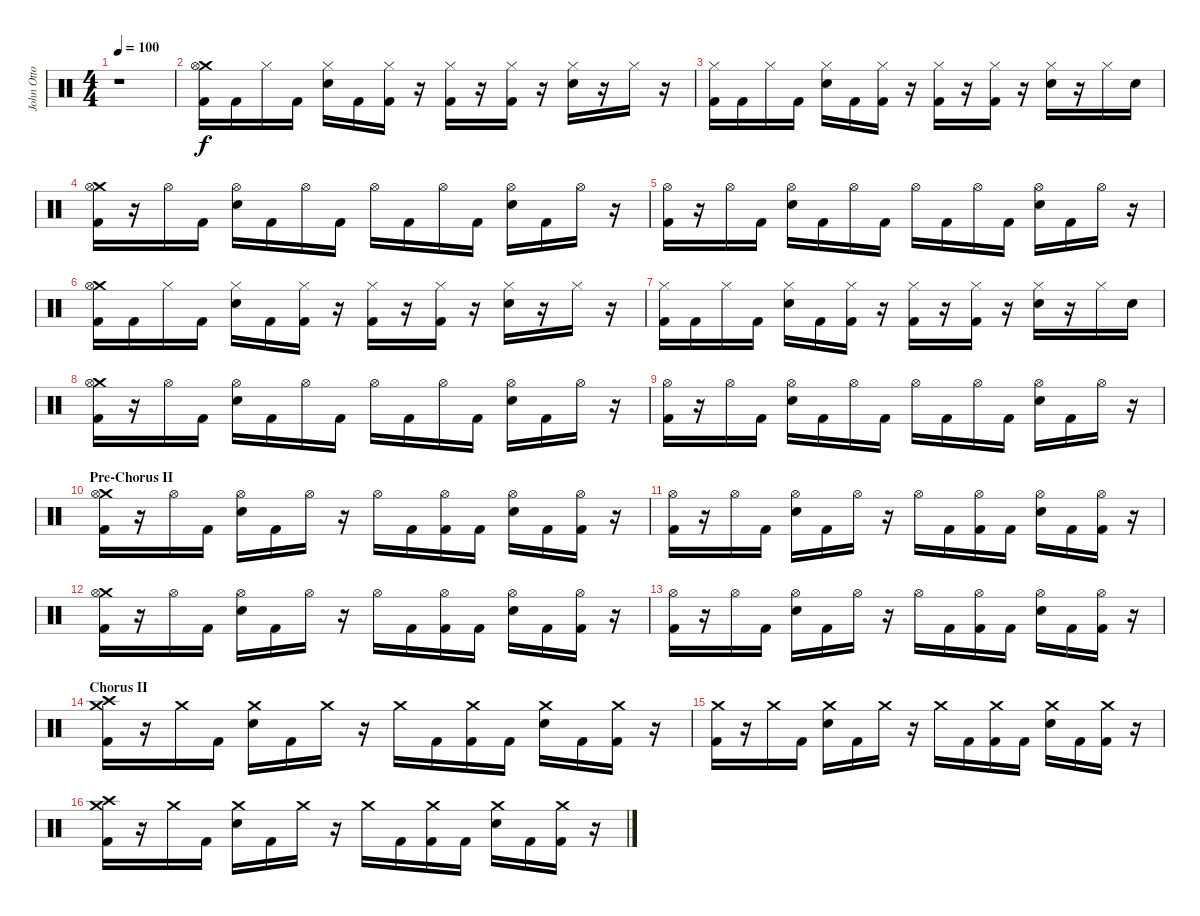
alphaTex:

\track ("John Otto - Drums" "John Otto ") {instrument percussion}
\staff {score}
\articulation defaults
\ts (4 4)
\tempo 100
\clef neutral
\ks c
r.1{dy f} |
("Crash medium (hit)" "Hi-Hat (open)" "Kick (hit) 2").16 "Kick (hit) 2".16 "Hi-Hat (closed)".16 "Kick (hit) 2".16 ("Hi-Hat (closed)" "Snare (hit) 2").16 "Kick (hit) 2".16 ("Hi-Hat (closed)" "Kick (hit) 2").16 r.16 ("Hi-Hat (closed)" "Kick (hit) 2").16 r.16 ("Hi-Hat (closed)" "Kick (hit) 2").16 r.16 ("Hi-Hat (closed)" "Snare (hit) 2").16 r.16 "Hi-Hat (closed)".16 r.16 |
("Hi-Hat (closed)" "Kick (hit) 2").16 "Kick (hit) 2".16 "Hi-Hat (closed)".16 "Kick (hit) 2".16 ("Hi-Hat (closed)" "Snare (hit) 2").16 "Kick (hit) 2".16 ("Hi-Hat (closed)" "Kick (hit) 2").16 r.16 ("Hi-Hat (closed)" "Kick (hit) 2").16 r.16 ("Hi-Hat (closed)" "Kick (hit) 2").16 r.16 ("Hi-Hat (closed)" "Snare (hit) 2").16 r.16 "Hi-Hat (closed)".16 "Snare (hit) 2".16 |
("Crash medium (hit)" "Hi-Hat (open)" "Kick (hit) 2").16 r.16 "Hi-Hat (open)".16 "Kick (hit) 2".16 ("Hi-Hat (open)" "Snare (hit) 2").16 "Kick (hit) 2".16 "Hi-Hat (open)".16 "Kick (hit) 2".16 "Hi-Hat (open)".16 "Kick (hit) 2".16 "Hi-Hat (open)".16 "Kick (hit) 2".16 ("Hi-Hat (open)" "Snare (hit) 2").16 "Kick (hit) 2".16 "Hi-Hat (open)".16 r.16 |
("Hi-Hat (open)" "Kick (hit) 2").16 r.16 "Hi-Hat (open)".16 "Kick (hit) 2".16 ("Hi-Hat (open)" "Snare (hit) 2").16 "Kick (hit) 2".16 "Hi-Hat (open)".16 "Kick (hit) 2".16 "Hi-Hat (open)".16 "Kick (hit) 2".16 "Hi-Hat (open)".16 "Kick (hit) 2".16 ("Hi-Hat (open)" "Snare (hit) 2").16 "Kick (hit) 2".16 "Hi-Hat (open)".16 r.16 |
("Crash medium (hit)" "Hi-Hat (open)" "Kick (hit) 2").16 "Kick (hit) 2".16 "Hi-Hat (closed)".16 "Kick (hit) 2".16 ("Hi-Hat (closed)" "Snare (hit) 2").16 "Kick (hit) 2".16 ("Hi-Hat (closed)" "Kick (hit) 2").16 r.16 ("Hi-Hat (closed)" "Kick (hit) 2").16 r.16 ("Hi-Hat (closed)" "Kick (hit) 2").16 r.16 ("Hi-Hat (closed)" "Snare (hit) 2").16 r.16 "Hi-Hat (closed)".16 r.16 |
("Hi-Hat (closed)" "Kick (hit) 2").16 "Kick (hit) 2".16 "Hi-Hat (closed)".16 "Kick (hit) 2".16 ("Hi-Hat (closed)" "Snare (hit) 2").16 "Kick (hit) 2".16 ("Hi-Hat (closed)" "Kick (hit) 2").16 r.16 ("Hi-Hat (closed)" "Kick (hit) 2").16 r.16 ("Hi-Hat (closed)" "Kick (hit) 2").16 r.16 ("Hi-Hat (closed)" "Snare (hit) 2").16 r.16 "Hi-Hat (closed)".16 "Snare (hit) 2".16 |
("Crash medium (hit)" "Hi-Hat (open)" "Kick (hit) 2").16 r.16 "Hi-Hat (open)".16 "Kick (hit) 2".16 ("Hi-Hat (open)" "Snare (hit) 2").16 "Kick (hit) 2".16 "Hi-Hat (open)".16 "Kick (hit) 2".16 "Hi-Hat (open)".16 "Kick (hit) 2".16 "Hi-Hat (open)".16 "Kick (hit) 2".16 ("Hi-Hat (open)" "Snare (hit) 2").16 "Kick (hit) 2".16 "Hi-Hat (open)".16 r.16 |
("Hi-Hat (open)" "Kick (hit) 2").16 r.16 "Hi-Hat (open)".16 "Kick (hit) 2".16 ("Hi-Hat (open)" "Snare (hit) 2").16 "Kick (hit) 2".16 "Hi-Hat (open)".16 "Kick (hit) 2".16 "Hi-Hat (open)".16 "Kick (hit) 2".16 "Hi-Hat (open)".16 "Kick (hit) 2".16 ("Hi-Hat (open)" "Snare (hit) 2").16 "Kick (hit) 2".16 "Hi-Hat (open)".16 r.16 |
\section ("" "Pre-Chorus II")
("Crash medium (hit)" "Hi-Hat (open)" "Kick (hit) 2").16 r.16 "Hi-Hat (open)".16 "Kick (hit) 2".16 ("Hi-Hat (open)" "Snare (hit) 2").16 "Kick (hit) 2".16 "Hi-Hat (open)".16 r.16 "Hi-Hat (open)".16 "Kick (hit) 2".16 ("Hi-Hat (open)" "Kick (hit) 2").16 "Kick (hit) 2".16 ("Hi-Hat (open)" "Snare (hit) 2").16 "Kick (hit) 2".16 ("Hi-Hat (open)" "Kick (hit) 2").16 r.16 |
("Hi-Hat (open)" "Kick (hit) 2").16 r.16 "Hi-Hat (open)".16 "Kick (hit) 2".16 ("Hi-Hat (open)" "Snare (hit) 2").16 "Kick (hit) 2".16 "Hi-Hat (open)".16 r.16 "Hi-Hat (open)".16 "Kick (hit) 2".16 ("Hi-Hat (open)" "Kick (hit) 2").16 "Kick (hit) 2".16 ("Hi-Hat (open)" "Snare (hit) 2").16 "Kick (hit) 2".16 ("Hi-Hat (open)" "Kick (hit) 2").16 r.16 |
("Crash medium (hit)" "Hi-Hat (open)" "Kick (hit) 2").16 r.16 "Hi-Hat (open)".16 "Kick (hit) 2".16 ("Hi-Hat (open)" "Snare (hit) 2").16 "Kick (hit) 2".16 "Hi-Hat (open)".16 r.16 "Hi-Hat (open)".16 "Kick (hit) 2".16 ("Hi-Hat (open)" "Kick (hit) 2").16 "Kick (hit) 2".16 ("Hi-Hat (open)" "Snare (hit) 2").16 "Kick (hit) 2".16 ("Hi-Hat (open)" "Kick (hit) 2").16 r.16 |
("Hi-Hat (open)" "Kick (hit) 2").16 r.16 "Hi-Hat (open)".16 "Kick (hit) 2".16 ("Hi-Hat (open)" "Snare (hit) 2").16 "Kick (hit) 2".16 "Hi-Hat (open)".16 r.16 "Hi-Hat (open)".16 "Kick (hit) 2".16 ("Hi-Hat (open)" "Kick (hit) 2").16 "Kick (hit) 2".16 ("Hi-Hat (open)" "Snare (hit) 2").16 "Kick (hit) 2".16 ("Hi-Hat (open)" "Kick (hit) 2").16 r.16 |
\section ("" "Chorus II")
("Crash medium (hit)" "Crash high (hit)" "Kick (hit) 2").16 r.16 "Crash medium (hit)".16 "Kick (hit) 2".16 ("Crash medium (hit)" "Snare (hit) 2").16 "Kick (hit) 2".16 "Crash medium (hit)".16 r.16 "Crash medium (hit)".16 "Kick (hit) 2".16 ("Crash medium (hit)" "Kick (hit) 2").16 "Kick (hit) 2".16 ("Crash medium (hit)" "Snare (hit) 2").16 "Kick (hit) 2".16 ("Crash medium (hit)" "Kick (hit) 2").16 r.16 |
("Crash medium (hit)" "Kick (hit) 2").16 r.16 "Crash medium (hit)".16 "Kick (hit) 2".16 ("Crash medium (hit)" "Snare (hit) 2").16 "Kick (hit) 2".16 "Crash medium (hit)".16 r.16 "Crash medium (hit)".16 "Kick (hit) 2".16 ("Crash medium (hit)" "Kick (hit) 2").16 "Kick (hit) 2".16 ("Crash medium (hit)" "Snare (hit) 2").16 "Kick (hit) 2".16 ("Crash medium (hit)" "Kick (hit) 2").16 r.16 |
("Crash medium (hit)" "Crash high (hit)" "Kick (hit) 2").16 r.16 "Crash medium (hit)".16 "Kick (hit) 2".16 ("Crash medium (hit)" "Snare (hit) 2").16 "Kick (hit) 2".16 "Crash medium (hit)".16 r.16 "Crash medium (hit)".16 "Kick (hit) 2".16 ("Crash medium (hit)" "Kick (hit) 2").16 "Kick (hit) 2".16 ("Crash medium (hit)" "Snare (hit) 2").16 "Kick (hit) 2".16 ("Crash medium (hit)" "Kick (hit) 2").16 r.16
